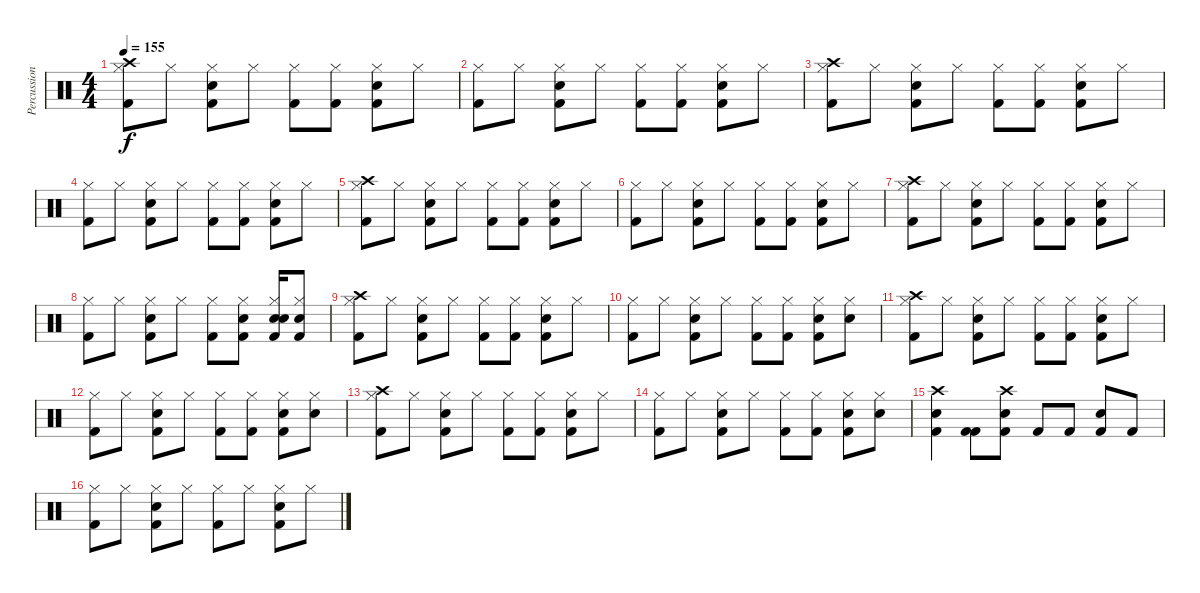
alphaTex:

\track ("Percussion" "Percussion") {instrument percussion}
\staff {score}
\articulation defaults
\ts (4 4)
\tempo 155
\clef neutral
\ks c
("Crash high (hit)" "Kick (hit) 2" "Hi-Hat (closed)").8{dy f} "Hi-Hat (closed)".8 ("Kick (hit) 2" "Snare (hit) 2" "Hi-Hat (closed)").8 "Hi-Hat (closed)".8 ("Kick (hit) 2" "Hi-Hat (closed)").8 ("Kick (hit) 2" "Hi-Hat (closed)").8 ("Kick (hit) 2" "Snare (hit) 2" "Hi-Hat (closed)").8 "Hi-Hat (closed)".8 |
("Kick (hit) 2" "Hi-Hat (closed)").8 "Hi-Hat (closed)".8 ("Kick (hit) 2" "Snare (hit) 2" "Hi-Hat (closed)").8 "Hi-Hat (closed)".8 ("Kick (hit) 2" "Hi-Hat (closed)").8 ("Kick (hit) 2" "Hi-Hat (closed)").8 ("Kick (hit) 2" "Snare (hit) 2" "Hi-Hat (closed)").8 "Hi-Hat (closed)".8 |
("Crash high (hit)" "Kick (hit) 2" "Hi-Hat (closed)").8 "Hi-Hat (closed)".8 ("Kick (hit) 2" "Snare (hit) 2" "Hi-Hat (closed)").8 "Hi-Hat (closed)".8 ("Kick (hit) 2" "Hi-Hat (closed)").8 ("Kick (hit) 2" "Hi-Hat (closed)").8 ("Kick (hit) 2" "Snare (hit) 2" "Hi-Hat (closed)").8 "Hi-Hat (closed)".8 |
("Kick (hit) 2" "Hi-Hat (closed)").8 "Hi-Hat (closed)".8 ("Kick (hit) 2" "Snare (hit) 2" "Hi-Hat (closed)").8 "Hi-Hat (closed)".8 ("Kick (hit) 2" "Hi-Hat (closed)").8 ("Kick (hit) 2" "Hi-Hat (closed)").8 ("Kick (hit) 2" "Snare (hit) 2" "Hi-Hat (closed)").8 "Hi-Hat (closed)".8 |
("Crash high (hit)" "Kick (hit) 2" "Hi-Hat (closed)").8 "Hi-Hat (closed)".8 ("Kick (hit) 2" "Snare (hit) 2" "Hi-Hat (closed)").8 "Hi-Hat (closed)".8 ("Kick (hit) 2" "Hi-Hat (closed)").8 ("Kick (hit) 2" "Hi-Hat (closed)").8 ("Kick (hit) 2" "Snare (hit) 2" "Hi-Hat (closed)").8 "Hi-Hat (closed)".8 |
("Kick (hit) 2" "Hi-Hat (closed)").8 "Hi-Hat (closed)".8 ("Kick (hit) 2" "Snare (hit) 2" "Hi-Hat (closed)").8 "Hi-Hat (closed)".8 ("Kick (hit) 2" "Hi-Hat (closed)").8 ("Kick (hit) 2" "Hi-Hat (closed)").8 ("Kick (hit) 2" "Snare (hit) 2" "Hi-Hat (closed)").8 "Hi-Hat (closed)".8 |
("Crash high (hit)" "Kick (hit) 2" "Hi-Hat (closed)").8 "Hi-Hat (closed)".8 ("Kick (hit) 2" "Snare (hit) 2" "Hi-Hat (closed)").8 "Hi-Hat (closed)".8 ("Kick (hit) 2" "Hi-Hat (closed)").8 ("Kick (hit) 2" "Hi-Hat (closed)").8 ("Kick (hit) 2" "Snare (hit) 2" "Hi-Hat (closed)").8 "Hi-Hat (closed)".8 |
("Kick (hit) 2" "Hi-Hat (closed)").8 "Hi-Hat (closed)".8 ("Kick (hit) 2" "Snare (hit) 2" "Hi-Hat (closed)").8 "Hi-Hat (closed)".8 ("Kick (hit) 2" "Hi-Hat (closed)").8 ("Kick (hit) 2" "Snare (hit) 2" "Hi-Hat (closed)").8 ("Kick (hit) 2" "Snare (hit) 2" "Snare (hit) 2" "Hi-Hat (closed)").16 ("Kick (hit) 2" "Snare (hit) 2" "Hi-Hat (closed)").8 |
("Crash high (hit)" "Kick (hit) 2" "Hi-Hat (closed)").8 "Hi-Hat (closed)".8 ("Kick (hit) 2" "Snare (hit) 2" "Hi-Hat (closed)").8 "Hi-Hat (closed)".8 ("Kick (hit) 2" "Hi-Hat (closed)").8 ("Kick (hit) 2" "Hi-Hat (closed)").8 ("Kick (hit) 2" "Snare (hit) 2" "Hi-Hat (closed)").8 "Hi-Hat (closed)".8 |
("Kick (hit) 2" "Hi-Hat (closed)").8 "Hi-Hat (closed)".8 ("Kick (hit) 2" "Snare (hit) 2" "Hi-Hat (closed)").8 "Hi-Hat (closed)".8 ("Kick (hit) 2" "Hi-Hat (closed)").8 ("Kick (hit) 2" "Hi-Hat (closed)").8 ("Kick (hit) 2" "Snare (hit) 2" "Hi-Hat (closed)").8 ("Snare (hit) 2" "Hi-Hat (closed)").8 |
("Crash high (hit)" "Kick (hit) 2" "Hi-Hat (closed)").8 "Hi-Hat (closed)".8 ("Kick (hit) 2" "Snare (hit) 2" "Hi-Hat (closed)").8 "Hi-Hat (closed)".8 ("Kick (hit) 2" "Hi-Hat (closed)").8 ("Kick (hit) 2" "Hi-Hat (closed)").8 ("Kick (hit) 2" "Snare (hit) 2" "Hi-Hat (closed)").8 "Hi-Hat (closed)".8 |
("Kick (hit) 2" "Hi-Hat (closed)").8 "Hi-Hat (closed)".8 ("Kick (hit) 2" "Snare (hit) 2" "Hi-Hat (closed)").8 "Hi-Hat (closed)".8 ("Kick (hit) 2" "Hi-Hat (closed)").8 ("Kick (hit) 2" "Hi-Hat (closed)").8 ("Kick (hit) 2" "Snare (hit) 2" "Hi-Hat (closed)").8 ("Snare (hit) 2" "Hi-Hat (closed)").8 |
("Crash high (hit)" "Kick (hit) 2" "Hi-Hat (closed)").8 "Hi-Hat (closed)".8 ("Kick (hit) 2" "Snare (hit) 2" "Hi-Hat (closed)").8 "Hi-Hat (closed)".8 ("Kick (hit) 2" "Hi-Hat (closed)").8 ("Kick (hit) 2" "Hi-Hat (closed)").8 ("Kick (hit) 2" "Snare (hit) 2" "Hi-Hat (closed)").8 "Hi-Hat (closed)".8 |
("Kick (hit) 2" "Hi-Hat (closed)").8 "Hi-Hat (closed)".8 ("Kick (hit) 2" "Snare (hit) 2" "Hi-Hat (closed)").8 "Hi-Hat (closed)".8 ("Kick (hit) 2" "Hi-Hat (closed)").8 ("Kick (hit) 2" "Hi-Hat (closed)").8 ("Kick (hit) 2" "Snare (hit) 2" "Hi-Hat (closed)").8 ("Snare (hit) 2" "Hi-Hat (closed)").8 |
("Crash high (hit)" "Snare (hit) 2" "Kick (hit) 2").4 ("Kick (hit) 2" "Kick (hit) 2").8 ("Crash high (hit)" "Snare (hit) 2" "Kick (hit) 2").8 "Kick (hit) 2".8 "Kick (hit) 2".8 ("Snare (hit) 2" "Kick (hit) 2").8 "Kick (hit) 2".8 |
("Kick (hit) 2" "Hi-Hat (closed)").8 "Hi-Hat (closed)".8 ("Snare (hit) 2" "Kick (hit) 2" "Hi-Hat (closed)").8 "Hi-Hat (closed)".8 ("Kick (hit) 2" "Hi-Hat (closed)").8 "Hi-Hat (closed)".8 ("Snare (hit) 2" "Kick (hit) 2" "Hi-Hat (closed)").8 "Hi-Hat (closed)".8
